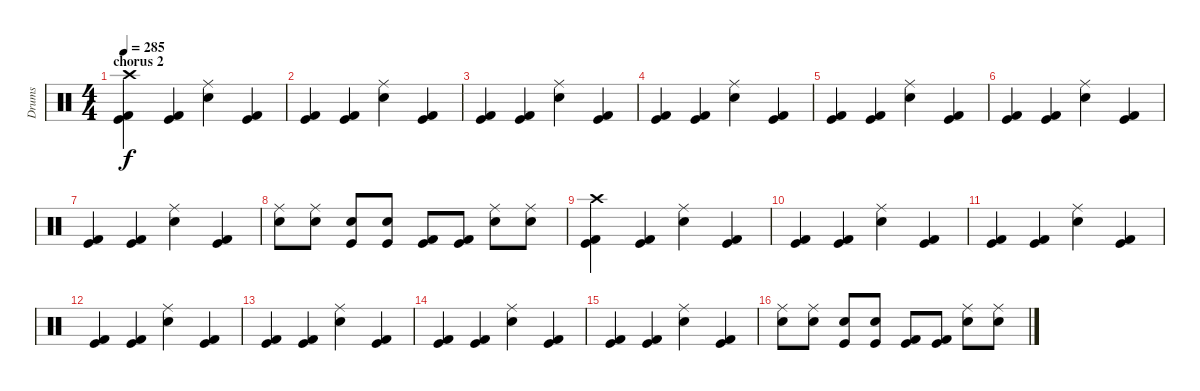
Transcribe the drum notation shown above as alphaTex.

\track ("Drums" "Drums") {instrument percussion}
\staff {score}
\articulation defaults
\ts (4 4)
\section ("" "chorus 2")
\tempo 285
\clef neutral
\ks c
("Crash high (hit)" "Kick (hit)" "Kick (hit) 2").4{dy f} ("Kick (hit)" "Kick (hit) 2").4 ("Ride (middle)" "Electric Snare (hit)").4 ("Kick (hit)" "Kick (hit) 2").4 |
("Kick (hit)" "Kick (hit) 2").4 ("Kick (hit)" "Kick (hit) 2").4 ("Ride (middle)" "Electric Snare (hit)").4 ("Kick (hit)" "Kick (hit) 2").4 |
("Kick (hit)" "Kick (hit) 2").4 ("Kick (hit)" "Kick (hit) 2").4 ("Ride (middle)" "Electric Snare (hit)").4 ("Kick (hit)" "Kick (hit) 2").4 |
("Kick (hit)" "Kick (hit) 2").4 ("Kick (hit)" "Kick (hit) 2").4 ("Ride (middle)" "Electric Snare (hit)").4 ("Kick (hit)" "Kick (hit) 2").4 |
("Kick (hit)" "Kick (hit) 2").4 ("Kick (hit)" "Kick (hit) 2").4 ("Ride (middle)" "Electric Snare (hit)").4 ("Kick (hit)" "Kick (hit) 2").4 |
("Kick (hit)" "Kick (hit) 2").4 ("Kick (hit)" "Kick (hit) 2").4 ("Ride (middle)" "Electric Snare (hit)").4 ("Kick (hit)" "Kick (hit) 2").4 |
("Kick (hit)" "Kick (hit) 2").4 ("Kick (hit)" "Kick (hit) 2").4 ("Ride (middle)" "Electric Snare (hit)").4 ("Kick (hit)" "Kick (hit) 2").4 |
("Ride (middle)" "Electric Snare (hit)").8 ("Ride (middle)" "Electric Snare (hit)").8 ("Kick (hit)" "Snare (hit) 2").8 ("Kick (hit)" "Snare (hit) 2").8 ("Kick (hit)" "Kick (hit) 2").8 ("Kick (hit)" "Kick (hit) 2").8 ("Ride (middle)" "Electric Snare (hit)").8 ("Ride (middle)" "Electric Snare (hit)").8 |
("Crash high (hit)" "Kick (hit)" "Kick (hit) 2").4 ("Kick (hit)" "Kick (hit) 2").4 ("Ride (middle)" "Electric Snare (hit)").4 ("Kick (hit)" "Kick (hit) 2").4 |
("Kick (hit)" "Kick (hit) 2").4 ("Kick (hit)" "Kick (hit) 2").4 ("Ride (middle)" "Electric Snare (hit)").4 ("Kick (hit)" "Kick (hit) 2").4 |
("Kick (hit)" "Kick (hit) 2").4 ("Kick (hit)" "Kick (hit) 2").4 ("Ride (middle)" "Electric Snare (hit)").4 ("Kick (hit)" "Kick (hit) 2").4 |
("Kick (hit)" "Kick (hit) 2").4 ("Kick (hit)" "Kick (hit) 2").4 ("Ride (middle)" "Electric Snare (hit)").4 ("Kick (hit)" "Kick (hit) 2").4 |
("Kick (hit)" "Kick (hit) 2").4 ("Kick (hit)" "Kick (hit) 2").4 ("Ride (middle)" "Electric Snare (hit)").4 ("Kick (hit)" "Kick (hit) 2").4 |
("Kick (hit)" "Kick (hit) 2").4 ("Kick (hit)" "Kick (hit) 2").4 ("Ride (middle)" "Electric Snare (hit)").4 ("Kick (hit)" "Kick (hit) 2").4 |
("Kick (hit)" "Kick (hit) 2").4 ("Kick (hit)" "Kick (hit) 2").4 ("Ride (middle)" "Electric Snare (hit)").4 ("Kick (hit)" "Kick (hit) 2").4 |
("Ride (middle)" "Electric Snare (hit)").8 ("Ride (middle)" "Electric Snare (hit)").8 ("Kick (hit)" "Snare (hit) 2").8 ("Kick (hit)" "Snare (hit) 2").8 ("Kick (hit)" "Kick (hit) 2").8 ("Kick (hit)" "Kick (hit) 2").8 ("Ride (middle)" "Electric Snare (hit)").8 ("Ride (middle)" "Electric Snare (hit)").8
